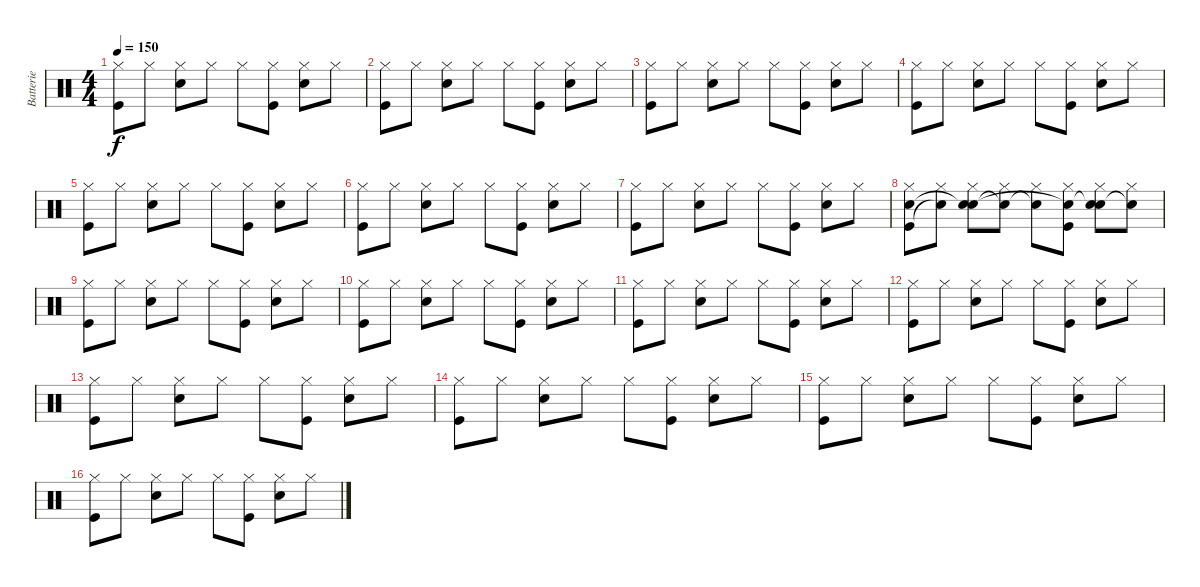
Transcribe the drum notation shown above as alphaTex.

\track ("Batterie" "Batterie") {instrument percussion}
\staff {score}
\articulation defaults
\ts (4 4)
\tempo 150
\clef neutral
\ks c
("Hi-Hat (closed)" "Kick (hit)").8{dy f} "Hi-Hat (closed)".8 ("Hi-Hat (closed)" "Snare (hit) 2").8 "Hi-Hat (closed)".8 "Hi-Hat (closed)".8 ("Hi-Hat (closed)" "Kick (hit)").8 ("Hi-Hat (closed)" "Snare (hit) 2").8 "Hi-Hat (closed)".8 |
("Hi-Hat (closed)" "Kick (hit)").8 "Hi-Hat (closed)".8 ("Hi-Hat (closed)" "Snare (hit) 2").8 "Hi-Hat (closed)".8 "Hi-Hat (closed)".8 ("Hi-Hat (closed)" "Kick (hit)").8 ("Hi-Hat (closed)" "Snare (hit) 2").8 "Hi-Hat (closed)".8 |
("Hi-Hat (closed)" "Kick (hit)").8 "Hi-Hat (closed)".8 ("Hi-Hat (closed)" "Snare (hit) 2").8 "Hi-Hat (closed)".8 "Hi-Hat (closed)".8 ("Hi-Hat (closed)" "Kick (hit)").8 ("Hi-Hat (closed)" "Snare (hit) 2").8 "Hi-Hat (closed)".8 |
("Hi-Hat (closed)" "Kick (hit)").8 "Hi-Hat (closed)".8 ("Hi-Hat (closed)" "Snare (hit) 2").8 "Hi-Hat (closed)".8 "Hi-Hat (closed)".8 ("Hi-Hat (closed)" "Kick (hit)").8 ("Hi-Hat (closed)" "Snare (hit) 2").8 "Hi-Hat (closed)".8 |
("Hi-Hat (closed)" "Kick (hit)").8 "Hi-Hat (closed)".8 ("Hi-Hat (closed)" "Snare (hit) 2").8 "Hi-Hat (closed)".8 "Hi-Hat (closed)".8 ("Hi-Hat (closed)" "Kick (hit)").8 ("Hi-Hat (closed)" "Snare (hit) 2").8 "Hi-Hat (closed)".8 |
("Hi-Hat (closed)" "Kick (hit)").8 "Hi-Hat (closed)".8 ("Hi-Hat (closed)" "Snare (hit) 2").8 "Hi-Hat (closed)".8 "Hi-Hat (closed)".8 ("Hi-Hat (closed)" "Kick (hit)").8 ("Hi-Hat (closed)" "Snare (hit) 2").8 "Hi-Hat (closed)".8 |
("Hi-Hat (closed)" "Kick (hit)").8 "Hi-Hat (closed)".8 ("Hi-Hat (closed)" "Snare (hit) 2").8 "Hi-Hat (closed)".8 "Hi-Hat (closed)".8 ("Hi-Hat (closed)" "Kick (hit)").8 ("Hi-Hat (closed)" "Snare (hit) 2").8 "Hi-Hat (closed)".8 |
("Hi-Hat (closed)" "Kick (hit)" "Snare (hit)").8 ("Hi-Hat (closed)" "Snare (hit)"{t}).8 ("Hi-Hat (closed)" "Snare (hit) 2" "Snare (hit)"{t}).8 ("Hi-Hat (closed)" "Snare (hit)"{t}).8 ("Hi-Hat (closed)" "Snare (hit)"{t}).8 ("Hi-Hat (closed)" "Kick (hit)" "Snare (hit)"{t}).8 ("Hi-Hat (closed)" "Snare (hit) 2" "Snare (hit)"{t}).8 ("Hi-Hat (closed)" "Snare (hit)"{t}).8 |
("Hi-Hat (closed)" "Kick (hit)").8 "Hi-Hat (closed)".8 ("Hi-Hat (closed)" "Snare (hit) 2").8 "Hi-Hat (closed)".8 "Hi-Hat (closed)".8 ("Hi-Hat (closed)" "Kick (hit)").8 ("Hi-Hat (closed)" "Snare (hit) 2").8 "Hi-Hat (closed)".8 |
("Hi-Hat (closed)" "Kick (hit)").8 "Hi-Hat (closed)".8 ("Hi-Hat (closed)" "Snare (hit) 2").8 "Hi-Hat (closed)".8 "Hi-Hat (closed)".8 ("Hi-Hat (closed)" "Kick (hit)").8 ("Hi-Hat (closed)" "Snare (hit) 2").8 "Hi-Hat (closed)".8 |
("Hi-Hat (closed)" "Kick (hit)").8 "Hi-Hat (closed)".8 ("Hi-Hat (closed)" "Snare (hit) 2").8 "Hi-Hat (closed)".8 "Hi-Hat (closed)".8 ("Hi-Hat (closed)" "Kick (hit)").8 ("Hi-Hat (closed)" "Snare (hit) 2").8 "Hi-Hat (closed)".8 |
("Hi-Hat (closed)" "Kick (hit)").8 "Hi-Hat (closed)".8 ("Hi-Hat (closed)" "Snare (hit) 2").8 "Hi-Hat (closed)".8 "Hi-Hat (closed)".8 ("Hi-Hat (closed)" "Kick (hit)").8 ("Hi-Hat (closed)" "Snare (hit) 2").8 "Hi-Hat (closed)".8 |
("Hi-Hat (closed)" "Kick (hit)").8 "Hi-Hat (closed)".8 ("Hi-Hat (closed)" "Snare (hit) 2").8 "Hi-Hat (closed)".8 "Hi-Hat (closed)".8 ("Hi-Hat (closed)" "Kick (hit)").8 ("Hi-Hat (closed)" "Snare (hit) 2").8 "Hi-Hat (closed)".8 |
("Hi-Hat (closed)" "Kick (hit)").8 "Hi-Hat (closed)".8 ("Hi-Hat (closed)" "Snare (hit) 2").8 "Hi-Hat (closed)".8 "Hi-Hat (closed)".8 ("Hi-Hat (closed)" "Kick (hit)").8 ("Hi-Hat (closed)" "Snare (hit) 2").8 "Hi-Hat (closed)".8 |
("Hi-Hat (closed)" "Kick (hit)").8 "Hi-Hat (closed)".8 ("Hi-Hat (closed)" "Snare (hit) 2").8 "Hi-Hat (closed)".8 "Hi-Hat (closed)".8 ("Hi-Hat (closed)" "Kick (hit)").8 ("Hi-Hat (closed)" "Snare (hit) 2").8 "Hi-Hat (closed)".8 |
("Hi-Hat (closed)" "Kick (hit)").8 "Hi-Hat (closed)".8 ("Hi-Hat (closed)" "Snare (hit) 2").8 "Hi-Hat (closed)".8 "Hi-Hat (closed)".8 ("Hi-Hat (closed)" "Kick (hit)").8 ("Hi-Hat (closed)" "Snare (hit) 2").8 "Hi-Hat (closed)".8
